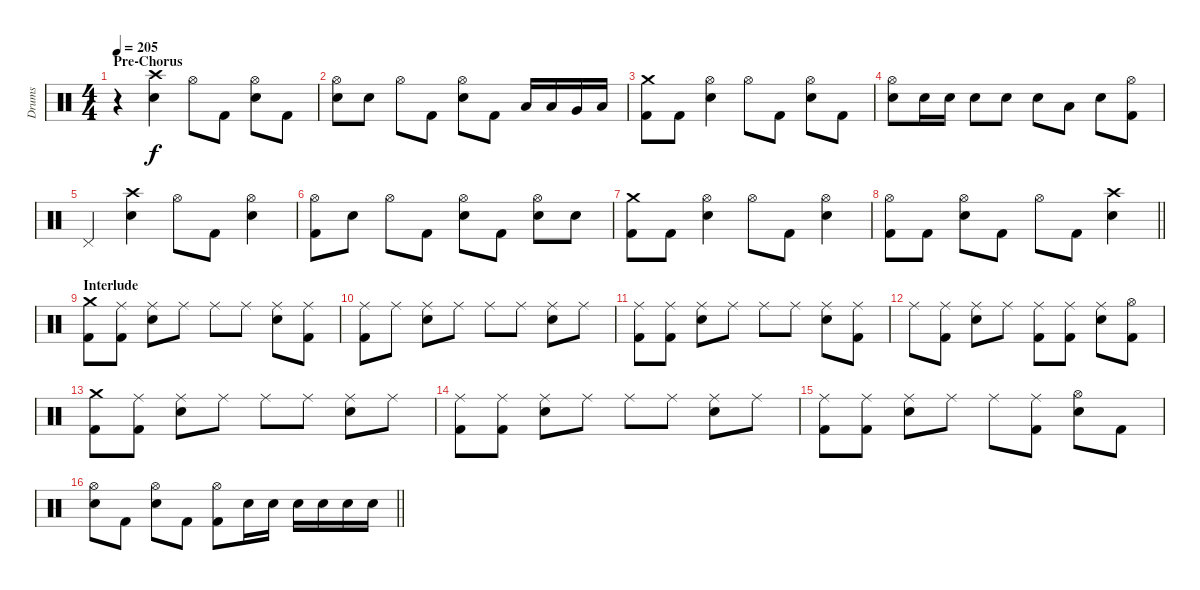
\track ("Drums" "Drums") {instrument percussion}
\staff {score}
\articulation defaults
\ts (4 4)
\section ("" "Pre-Chorus")
\tempo 205
\clef neutral
\ks c
r.4{dy f} ("Crash high (hit)" "Electric Snare (hit)").4 "Hi-Hat (open)".8 "Kick (hit) 2".8 ("Hi-Hat (open)" "Electric Snare (hit)").8 "Kick (hit) 2".8 |
("Hi-Hat (open)" "Electric Snare (hit)").8 "Electric Snare (hit)".8 "Hi-Hat (open)".8 "Kick (hit) 2".8 ("Hi-Hat (open)" "Electric Snare (hit)").8 "Kick (hit) 2".8 "Low Tom (hit)".16 "Low Tom (hit)".16 "Very Low Tom (hit)".16 "Low Floor Tom (hit)".16 |
("Crash medium (hit)" "Kick (hit) 2").8 "Kick (hit) 2".8 ("Hi-Hat (open)" "Electric Snare (hit)").4 "Hi-Hat (open)".8 "Kick (hit) 2".8 ("Hi-Hat (open)" "Electric Snare (hit)").8 "Kick (hit) 2".8 |
("Hi-Hat (open)" "Electric Snare (hit)").8 "Electric Snare (hit)".16 "Electric Snare (hit)".16 "Electric Snare (hit)".8 "Electric Snare (hit)".8 "Electric Snare (hit)".8 "Low Tom (hit)".8 "Electric Snare (hit)".8 ("Hi-Hat (open)" "Kick (hit) 2").8 |
"Pedal Hi-Hat (hit)".4 ("Crash high (hit)" "Electric Snare (hit)").4 "Hi-Hat (open)".8 "Kick (hit) 2".8 ("Hi-Hat (open)" "Electric Snare (hit)").4 |
("Hi-Hat (open)" "Kick (hit) 2").8 "Electric Snare (hit)".8 "Hi-Hat (open)".8 "Kick (hit) 2".8 ("Hi-Hat (open)" "Electric Snare (hit)").8 "Kick (hit) 2".8 ("Hi-Hat (open)" "Electric Snare (hit)").8 "Electric Snare (hit)".8 |
("Crash medium (hit)" "Kick (hit) 2").8 "Kick (hit) 2".8 ("Hi-Hat (open)" "Electric Snare (hit)").4 "Hi-Hat (open)".8 "Kick (hit) 2".8 ("Hi-Hat (open)" "Electric Snare (hit)").4 |
\barLineRight lightlight
("Hi-Hat (open)" "Kick (hit) 2").8 "Kick (hit) 2".8 ("Hi-Hat (open)" "Electric Snare (hit)").8 "Kick (hit) 2".8 "Hi-Hat (open)".8 "Kick (hit) 2".8 ("Crash high (hit)" "Electric Snare (hit)").4 |
\section ("" "Interlude")
("Crash medium (hit)" "Kick (hit) 2").8 ("Ride (middle)" "Kick (hit) 2").8 ("Ride (middle)" "Electric Snare (hit)").8 "Ride (middle)".8 "Ride (middle)".8 "Ride (middle)".8 ("Ride (middle)" "Electric Snare (hit)").8 ("Ride (middle)" "Kick (hit) 2").8 |
("Ride (middle)" "Kick (hit) 2").8 "Ride (middle)".8 ("Ride (middle)" "Electric Snare (hit)").8 "Ride (middle)".8 "Ride (middle)".8 "Ride (middle)".8 ("Ride (middle)" "Electric Snare (hit)").8 "Ride (middle)".8 |
("Ride (middle)" "Kick (hit) 2").8 ("Ride (middle)" "Kick (hit) 2").8 ("Ride (middle)" "Electric Snare (hit)").8 "Ride (middle)".8 "Ride (middle)".8 "Ride (middle)".8 ("Ride (middle)" "Electric Snare (hit)").8 ("Ride (middle)" "Kick (hit) 2").8 |
"Ride (middle)".8 ("Ride (middle)" "Kick (hit) 2").8 ("Ride (middle)" "Electric Snare (hit)").8 "Ride (middle)".8 ("Ride (middle)" "Kick (hit) 2").8 ("Ride (middle)" "Kick (hit) 2").8 ("Ride (middle)" "Electric Snare (hit)").8 ("Hi-Hat (open)" "Kick (hit) 2").8 |
("Crash medium (hit)" "Kick (hit) 2").8 ("Ride (middle)" "Kick (hit) 2").8 ("Ride (middle)" "Electric Snare (hit)").8 "Ride (middle)".8 "Ride (middle)".8 "Ride (middle)".8 ("Ride (middle)" "Electric Snare (hit)").8 "Ride (middle)".8 |
("Ride (middle)" "Kick (hit) 2").8 ("Ride (middle)" "Kick (hit) 2").8 ("Ride (middle)" "Electric Snare (hit)").8 "Ride (middle)".8 "Ride (middle)".8 "Ride (middle)".8 ("Ride (middle)" "Electric Snare (hit)").8 "Ride (middle)".8 |
("Ride (middle)" "Kick (hit) 2").8 ("Ride (middle)" "Kick (hit) 2").8 ("Ride (middle)" "Electric Snare (hit)").8 "Ride (middle)".8 "Ride (middle)".8 ("Ride (middle)" "Kick (hit) 2").8 ("Hi-Hat (open)" "Electric Snare (hit)").8 "Kick (hit) 2".8 |
\barLineRight lightlight
("Hi-Hat (open)" "Electric Snare (hit)").8 "Kick (hit) 2".8 ("Hi-Hat (open)" "Electric Snare (hit)").8 "Kick (hit) 2".8 ("Hi-Hat (open)" "Kick (hit) 2").8 "Electric Snare (hit)".16 "Electric Snare (hit)".16 "Electric Snare (hit)".16 "Electric Snare (hit)".16 "Electric Snare (hit)".16 "Electric Snare (hit)".16
